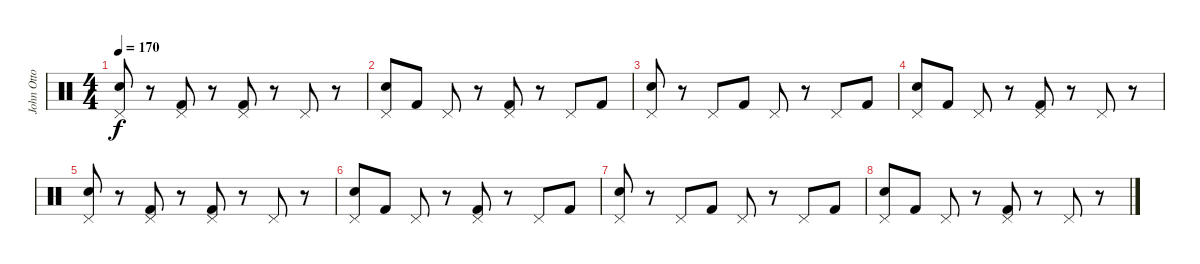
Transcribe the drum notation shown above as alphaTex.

\track ("John Otto" "John Otto") {instrument percussion}
\staff {score}
\articulation defaults
\ts (4 4)
\tempo 170
\clef neutral
\ks c
("Pedal Hi-Hat (hit)" "Snare (hit) 2").8{dy f} r.8 ("Pedal Hi-Hat (hit)" "Kick (hit) 2").8 r.8 ("Pedal Hi-Hat (hit)" "Kick (hit) 2").8 r.8 "Pedal Hi-Hat (hit)".8 r.8 |
("Pedal Hi-Hat (hit)" "Snare (hit) 2").8 "Kick (hit) 2".8 "Pedal Hi-Hat (hit)".8 r.8 ("Pedal Hi-Hat (hit)" "Kick (hit) 2").8 r.8 "Pedal Hi-Hat (hit)".8 "Kick (hit) 2".8 |
("Pedal Hi-Hat (hit)" "Snare (hit) 2").8 r.8 "Pedal Hi-Hat (hit)".8 "Kick (hit) 2".8 "Pedal Hi-Hat (hit)".8 r.8 "Pedal Hi-Hat (hit)".8 "Kick (hit) 2".8 |
("Pedal Hi-Hat (hit)" "Snare (hit) 2").8 "Kick (hit) 2".8 "Pedal Hi-Hat (hit)".8 r.8 ("Pedal Hi-Hat (hit)" "Kick (hit) 2").8 r.8 "Pedal Hi-Hat (hit)".8 r.8 |
("Pedal Hi-Hat (hit)" "Snare (hit) 2").8 r.8 ("Pedal Hi-Hat (hit)" "Kick (hit) 2").8 r.8 ("Pedal Hi-Hat (hit)" "Kick (hit) 2").8 r.8 "Pedal Hi-Hat (hit)".8 r.8 |
("Pedal Hi-Hat (hit)" "Snare (hit) 2").8 "Kick (hit) 2".8 "Pedal Hi-Hat (hit)".8 r.8 ("Pedal Hi-Hat (hit)" "Kick (hit) 2").8 r.8 "Pedal Hi-Hat (hit)".8 "Kick (hit) 2".8 |
("Pedal Hi-Hat (hit)" "Snare (hit) 2").8 r.8 "Pedal Hi-Hat (hit)".8 "Kick (hit) 2".8 "Pedal Hi-Hat (hit)".8 r.8 "Pedal Hi-Hat (hit)".8 "Kick (hit) 2".8 |
("Pedal Hi-Hat (hit)" "Snare (hit) 2").8 "Kick (hit) 2".8 "Pedal Hi-Hat (hit)".8 r.8 ("Pedal Hi-Hat (hit)" "Kick (hit) 2").8 r.8 "Pedal Hi-Hat (hit)".8 r.8
